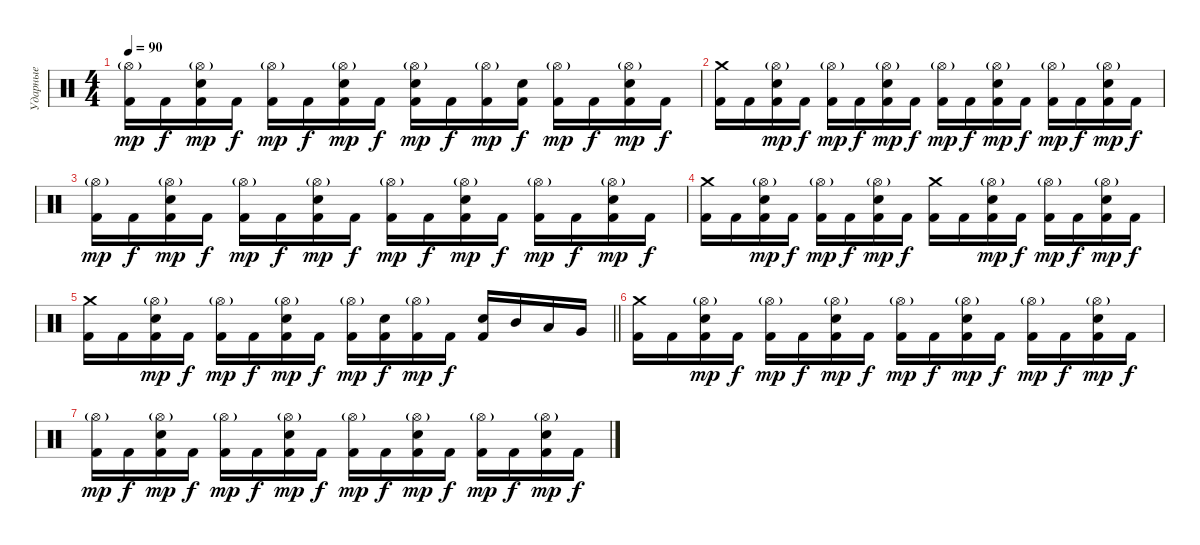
\track ("Ударные" "Ударные") {instrument percussion}
\staff {score}
\articulation defaults
\ts (4 4)
\tempo 90
\clef neutral
\ks c
("Hi-Hat (open)"{g} "Kick (hit) 2").16{dy mp} "Kick (hit) 2".16{dy f} ("Snare (hit) 2" "Hi-Hat (open)"{g} "Kick (hit) 2").16{dy mp} "Kick (hit) 2".16{dy f} ("Hi-Hat (open)"{g} "Kick (hit) 2").16{dy mp} "Kick (hit) 2".16{dy f} ("Snare (hit) 2" "Hi-Hat (open)"{g} "Kick (hit) 2").16{dy mp} "Kick (hit) 2".16{dy f} ("Snare (hit) 2" "Hi-Hat (open)"{g} "Kick (hit) 2").16{dy mp} "Kick (hit) 2".16{dy f} ("Hi-Hat (open)"{g} "Kick (hit) 2").16{dy mp} ("Snare (hit) 2" "Kick (hit) 2").16{dy f} ("Hi-Hat (open)"{g} "Kick (hit) 2").16{dy mp} "Kick (hit) 2".16{dy f} ("Snare (hit) 2" "Hi-Hat (open)"{g} "Kick (hit) 2").16{dy mp} "Kick (hit) 2".16{dy f} |
("Crash medium (hit)" "Kick (hit) 2").16{volume 8} "Kick (hit) 2".16 ("Snare (hit) 2" "Hi-Hat (open)"{g} "Kick (hit) 2").16{dy mp} "Kick (hit) 2".16{dy f} ("Hi-Hat (open)"{g} "Kick (hit) 2").16{dy mp} "Kick (hit) 2".16{dy f} ("Snare (hit) 2" "Hi-Hat (open)"{g} "Kick (hit) 2").16{dy mp} "Kick (hit) 2".16{dy f} ("Hi-Hat (open)"{g} "Kick (hit) 2").16{dy mp} "Kick (hit) 2".16{dy f} ("Snare (hit) 2" "Hi-Hat (open)"{g} "Kick (hit) 2").16{dy mp} "Kick (hit) 2".16{dy f} ("Hi-Hat (open)"{g} "Kick (hit) 2").16{dy mp} "Kick (hit) 2".16{dy f} ("Snare (hit) 2" "Hi-Hat (open)"{g} "Kick (hit) 2").16{dy mp} "Kick (hit) 2".16{dy f} |
("Hi-Hat (open)"{g} "Kick (hit) 2").16{dy mp} "Kick (hit) 2".16{dy f} ("Snare (hit) 2" "Hi-Hat (open)"{g} "Kick (hit) 2").16{dy mp} "Kick (hit) 2".16{dy f} ("Hi-Hat (open)"{g} "Kick (hit) 2").16{dy mp} "Kick (hit) 2".16{dy f} ("Snare (hit) 2" "Hi-Hat (open)"{g} "Kick (hit) 2").16{dy mp} "Kick (hit) 2".16{dy f} ("Hi-Hat (open)"{g} "Kick (hit) 2").16{dy mp} "Kick (hit) 2".16{dy f} ("Snare (hit) 2" "Hi-Hat (open)"{g} "Kick (hit) 2").16{dy mp} "Kick (hit) 2".16{dy f} ("Hi-Hat (open)"{g} "Kick (hit) 2").16{dy mp} "Kick (hit) 2".16{dy f} ("Snare (hit) 2" "Hi-Hat (open)"{g} "Kick (hit) 2").16{dy mp} "Kick (hit) 2".16{dy f} |
("Crash medium (hit)" "Kick (hit) 2").16 "Kick (hit) 2".16 ("Snare (hit) 2" "Hi-Hat (open)"{g} "Kick (hit) 2").16{dy mp} "Kick (hit) 2".16{dy f} ("Hi-Hat (open)"{g} "Kick (hit) 2").16{dy mp} "Kick (hit) 2".16{dy f} ("Snare (hit) 2" "Hi-Hat (open)"{g} "Kick (hit) 2").16{dy mp} "Kick (hit) 2".16{dy f} ("Crash medium (hit)" "Kick (hit) 2").16 "Kick (hit) 2".16 ("Snare (hit) 2" "Hi-Hat (open)"{g} "Kick (hit) 2").16{dy mp} "Kick (hit) 2".16{dy f} ("Hi-Hat (open)"{g} "Kick (hit) 2").16{dy mp} "Kick (hit) 2".16{dy f} ("Snare (hit) 2" "Hi-Hat (open)"{g} "Kick (hit) 2").16{dy mp} "Kick (hit) 2".16{dy f} |
\barLineRight lightlight
("Crash medium (hit)" "Kick (hit) 2").16 "Kick (hit) 2".16 ("Snare (hit) 2" "Hi-Hat (open)"{g} "Kick (hit) 2").16{dy mp} "Kick (hit) 2".16{dy f} ("Hi-Hat (open)"{g} "Kick (hit) 2").16{dy mp} "Kick (hit) 2".16{dy f} ("Snare (hit) 2" "Hi-Hat (open)"{g} "Kick (hit) 2").16{dy mp} "Kick (hit) 2".16{dy f} ("Hi-Hat (open)"{g} "Kick (hit) 2").16{dy mp} ("Snare (hit) 2" "Kick (hit) 2").16{dy f} ("Hi-Hat (open)"{g} "Kick (hit) 2").16{dy mp} "Kick (hit) 2".16{dy f} ("Snare (hit) 2" "Kick (hit) 2").16 "Mid Tom (hit)".16 "Low Tom (hit)".16 "Very Low Tom (hit)".16 |
("Crash medium (hit)" "Kick (hit) 2").16{volume 0} "Kick (hit) 2".16 ("Snare (hit) 2" "Hi-Hat (open)"{g} "Kick (hit) 2").16{dy mp} "Kick (hit) 2".16{dy f} ("Hi-Hat (open)"{g} "Kick (hit) 2").16{dy mp} "Kick (hit) 2".16{dy f} ("Snare (hit) 2" "Hi-Hat (open)"{g} "Kick (hit) 2").16{dy mp} "Kick (hit) 2".16{dy f} ("Hi-Hat (open)"{g} "Kick (hit) 2").16{dy mp} "Kick (hit) 2".16{dy f} ("Snare (hit) 2" "Hi-Hat (open)"{g} "Kick (hit) 2").16{dy mp} "Kick (hit) 2".16{dy f} ("Hi-Hat (open)"{g} "Kick (hit) 2").16{dy mp} "Kick (hit) 2".16{dy f} ("Snare (hit) 2" "Hi-Hat (open)"{g} "Kick (hit) 2").16{dy mp} "Kick (hit) 2".16{dy f} |
("Hi-Hat (open)"{g} "Kick (hit) 2").16{dy mp} "Kick (hit) 2".16{dy f} ("Snare (hit) 2" "Hi-Hat (open)"{g} "Kick (hit) 2").16{dy mp} "Kick (hit) 2".16{dy f} ("Hi-Hat (open)"{g} "Kick (hit) 2").16{dy mp} "Kick (hit) 2".16{dy f} ("Snare (hit) 2" "Hi-Hat (open)"{g} "Kick (hit) 2").16{dy mp} "Kick (hit) 2".16{dy f} ("Hi-Hat (open)"{g} "Kick (hit) 2").16{dy mp} "Kick (hit) 2".16{dy f} ("Snare (hit) 2" "Hi-Hat (open)"{g} "Kick (hit) 2").16{dy mp} "Kick (hit) 2".16{dy f} ("Hi-Hat (open)"{g} "Kick (hit) 2").16{dy mp} "Kick (hit) 2".16{dy f} ("Snare (hit) 2" "Hi-Hat (open)"{g} "Kick (hit) 2").16{dy mp} "Kick (hit) 2".16{dy f}
